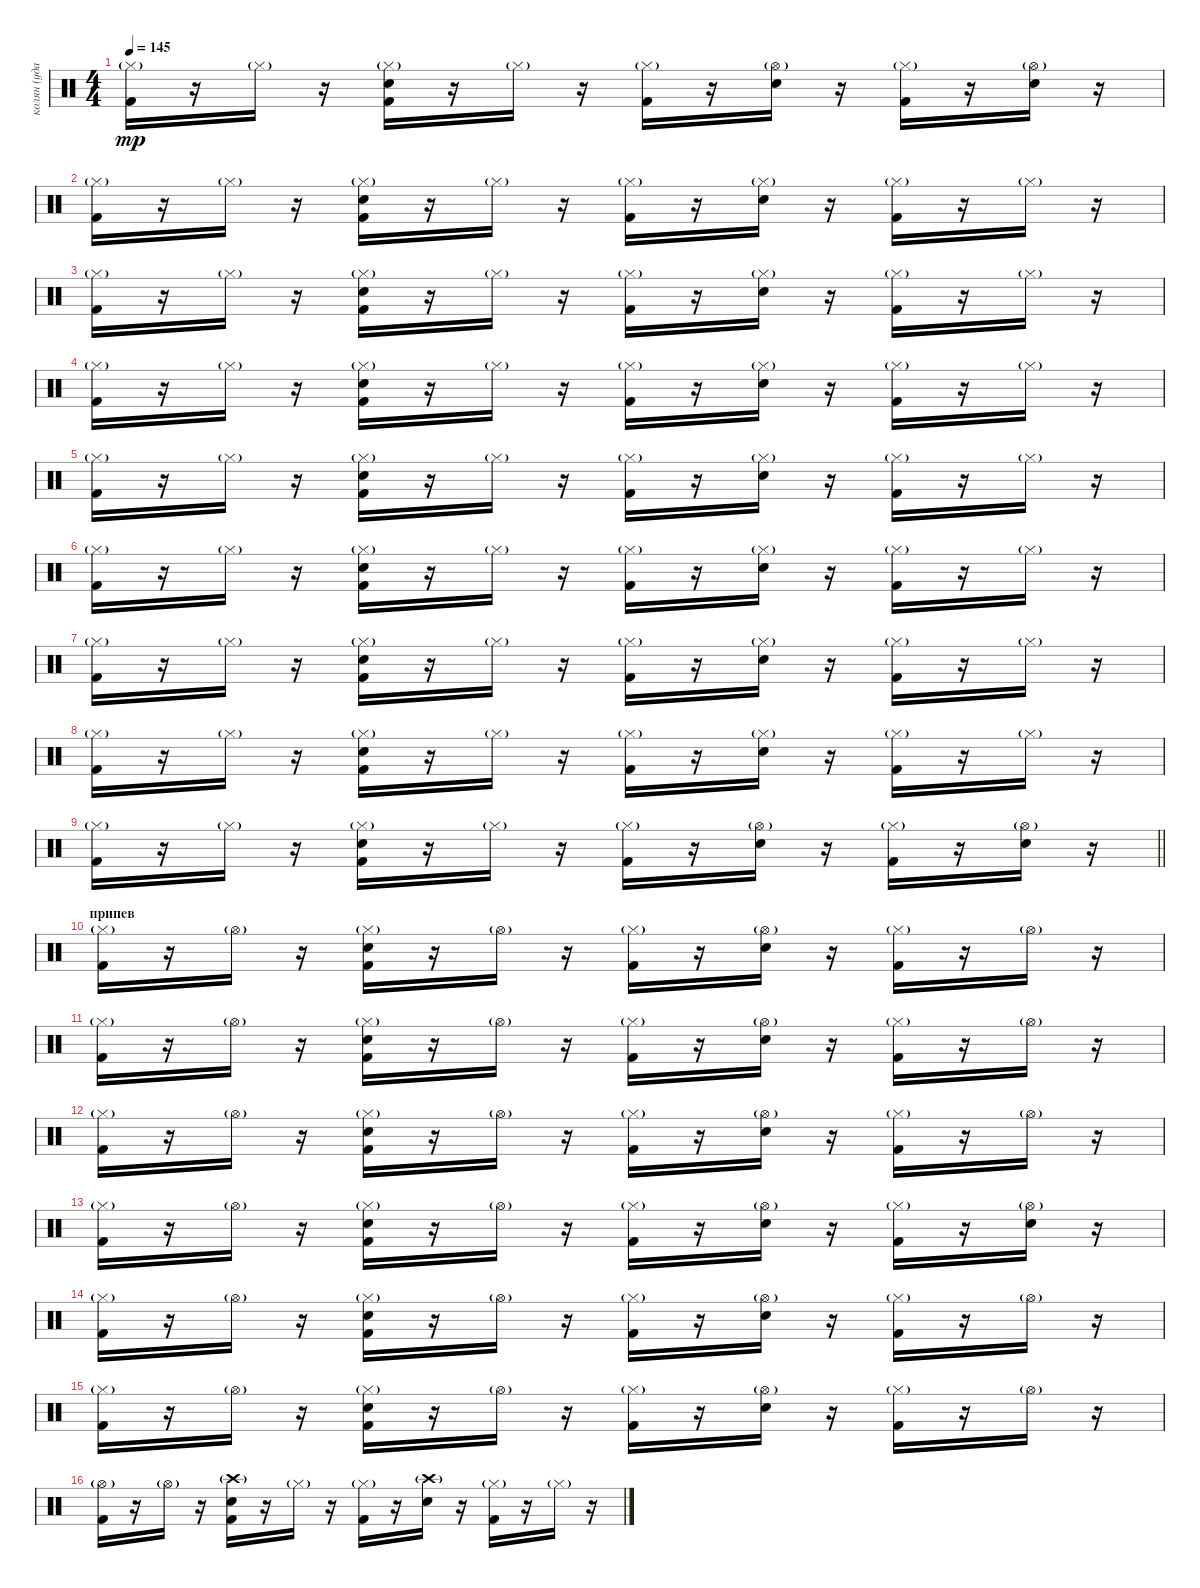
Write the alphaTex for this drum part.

\track ("колян (ударные)" "колян (уда") {instrument percussion}
\staff {score}
\articulation defaults
\ts (4 4)
\tempo 145
\clef neutral
\ks c
("Kick (hit) 2" "Hi-Hat (closed)"{g}).16{dy mp} r.16 "Hi-Hat (closed)"{g}.16 r.16 ("Snare (hit) 2" "Kick (hit) 2" "Hi-Hat (closed)"{g}).16 r.16 "Hi-Hat (closed)"{g}.16 r.16 ("Kick (hit) 2" "Hi-Hat (closed)"{g}).16 r.16 ("Snare (hit) 2" "Hi-Hat (open)"{g}).16 r.16 ("Kick (hit) 2" "Hi-Hat (closed)"{g}).16 r.16 ("Snare (hit) 2" "Hi-Hat (open)"{g}).16 r.16 |
("Kick (hit) 2" "Hi-Hat (closed)"{g}).16 r.16 "Hi-Hat (closed)"{g}.16 r.16 ("Snare (hit) 2" "Kick (hit) 2" "Hi-Hat (closed)"{g}).16 r.16 "Hi-Hat (closed)"{g}.16 r.16 ("Kick (hit) 2" "Hi-Hat (closed)"{g}).16 r.16 ("Snare (hit) 2" "Hi-Hat (closed)"{g}).16 r.16 ("Kick (hit) 2" "Hi-Hat (closed)"{g}).16 r.16 "Hi-Hat (closed)"{g}.16 r.16 |
("Kick (hit) 2" "Hi-Hat (closed)"{g}).16 r.16 "Hi-Hat (closed)"{g}.16 r.16 ("Snare (hit) 2" "Kick (hit) 2" "Hi-Hat (closed)"{g}).16 r.16 "Hi-Hat (closed)"{g}.16 r.16 ("Kick (hit) 2" "Hi-Hat (closed)"{g}).16 r.16 ("Snare (hit) 2" "Hi-Hat (closed)"{g}).16 r.16 ("Kick (hit) 2" "Hi-Hat (closed)"{g}).16 r.16 "Hi-Hat (closed)"{g}.16 r.16 |
("Kick (hit) 2" "Hi-Hat (closed)"{g}).16 r.16 "Hi-Hat (closed)"{g}.16 r.16 ("Snare (hit) 2" "Kick (hit) 2" "Hi-Hat (closed)"{g}).16 r.16 "Hi-Hat (closed)"{g}.16 r.16 ("Kick (hit) 2" "Hi-Hat (closed)"{g}).16 r.16 ("Snare (hit) 2" "Hi-Hat (closed)"{g}).16 r.16 ("Kick (hit) 2" "Hi-Hat (closed)"{g}).16 r.16 "Hi-Hat (closed)"{g}.16 r.16 |
("Kick (hit) 2" "Hi-Hat (closed)"{g}).16 r.16 "Hi-Hat (closed)"{g}.16 r.16 ("Snare (hit) 2" "Kick (hit) 2" "Hi-Hat (closed)"{g}).16 r.16 "Hi-Hat (closed)"{g}.16 r.16 ("Kick (hit) 2" "Hi-Hat (closed)"{g}).16 r.16 ("Snare (hit) 2" "Hi-Hat (closed)"{g}).16 r.16 ("Kick (hit) 2" "Hi-Hat (closed)"{g}).16 r.16 "Hi-Hat (closed)"{g}.16 r.16 |
("Kick (hit) 2" "Hi-Hat (closed)"{g}).16 r.16 "Hi-Hat (closed)"{g}.16 r.16 ("Snare (hit) 2" "Kick (hit) 2" "Hi-Hat (closed)"{g}).16 r.16 "Hi-Hat (closed)"{g}.16 r.16 ("Kick (hit) 2" "Hi-Hat (closed)"{g}).16 r.16 ("Snare (hit) 2" "Hi-Hat (closed)"{g}).16 r.16 ("Kick (hit) 2" "Hi-Hat (closed)"{g}).16 r.16 "Hi-Hat (closed)"{g}.16 r.16 |
("Kick (hit) 2" "Hi-Hat (closed)"{g}).16 r.16 "Hi-Hat (closed)"{g}.16 r.16 ("Snare (hit) 2" "Kick (hit) 2" "Hi-Hat (closed)"{g}).16 r.16 "Hi-Hat (closed)"{g}.16 r.16 ("Kick (hit) 2" "Hi-Hat (closed)"{g}).16 r.16 ("Snare (hit) 2" "Hi-Hat (closed)"{g}).16 r.16 ("Kick (hit) 2" "Hi-Hat (closed)"{g}).16 r.16 "Hi-Hat (closed)"{g}.16 r.16 |
("Kick (hit) 2" "Hi-Hat (closed)"{g}).16 r.16 "Hi-Hat (closed)"{g}.16 r.16 ("Snare (hit) 2" "Kick (hit) 2" "Hi-Hat (closed)"{g}).16 r.16 "Hi-Hat (closed)"{g}.16 r.16 ("Kick (hit) 2" "Hi-Hat (closed)"{g}).16 r.16 ("Snare (hit) 2" "Hi-Hat (closed)"{g}).16 r.16 ("Kick (hit) 2" "Hi-Hat (closed)"{g}).16 r.16 "Hi-Hat (closed)"{g}.16 r.16 |
\barLineRight lightlight
("Kick (hit) 2" "Hi-Hat (closed)"{g}).16 r.16 "Hi-Hat (closed)"{g}.16 r.16 ("Snare (hit) 2" "Kick (hit) 2" "Hi-Hat (closed)"{g}).16 r.16 "Hi-Hat (closed)"{g}.16 r.16 ("Kick (hit) 2" "Hi-Hat (closed)"{g}).16 r.16 ("Snare (hit) 2" "Hi-Hat (open)"{g}).16 r.16 ("Kick (hit) 2" "Hi-Hat (closed)"{g}).16 r.16 ("Snare (hit) 2" "Hi-Hat (open)"{g}).16 r.16 |
\section ("" "припев")
("Kick (hit) 2" "Hi-Hat (closed)"{g}).16 r.16 "Hi-Hat (open)"{g}.16 r.16 ("Snare (hit) 2" "Kick (hit) 2" "Hi-Hat (closed)"{g}).16 r.16 "Hi-Hat (open)"{g}.16 r.16 ("Kick (hit) 2" "Hi-Hat (closed)"{g}).16 r.16 ("Snare (hit) 2" "Hi-Hat (open)"{g}).16 r.16 ("Kick (hit) 2" "Hi-Hat (closed)"{g}).16 r.16 "Hi-Hat (open)"{g}.16 r.16 |
("Kick (hit) 2" "Hi-Hat (closed)"{g}).16 r.16 "Hi-Hat (open)"{g}.16 r.16 ("Snare (hit) 2" "Kick (hit) 2" "Hi-Hat (closed)"{g}).16 r.16 "Hi-Hat (open)"{g}.16 r.16 ("Kick (hit) 2" "Hi-Hat (closed)"{g}).16 r.16 ("Snare (hit) 2" "Hi-Hat (open)"{g}).16 r.16 ("Kick (hit) 2" "Hi-Hat (closed)"{g}).16 r.16 "Hi-Hat (open)"{g}.16 r.16 |
("Kick (hit) 2" "Hi-Hat (closed)"{g}).16 r.16 "Hi-Hat (open)"{g}.16 r.16 ("Snare (hit) 2" "Kick (hit) 2" "Hi-Hat (closed)"{g}).16 r.16 "Hi-Hat (open)"{g}.16 r.16 ("Kick (hit) 2" "Hi-Hat (closed)"{g}).16 r.16 ("Snare (hit) 2" "Hi-Hat (open)"{g}).16 r.16 ("Kick (hit) 2" "Hi-Hat (closed)"{g}).16 r.16 "Hi-Hat (open)"{g}.16 r.16 |
("Kick (hit) 2" "Hi-Hat (closed)"{g}).16 r.16 "Hi-Hat (open)"{g}.16 r.16 ("Snare (hit) 2" "Kick (hit) 2" "Hi-Hat (closed)"{g}).16 r.16 "Hi-Hat (open)"{g}.16 r.16 ("Kick (hit) 2" "Hi-Hat (closed)"{g}).16 r.16 ("Snare (hit) 2" "Hi-Hat (open)"{g}).16 r.16 ("Kick (hit) 2" "Hi-Hat (closed)"{g}).16 r.16 ("Snare (hit) 2" "Hi-Hat (open)"{g}).16 r.16 |
("Kick (hit) 2" "Hi-Hat (closed)"{g}).16 r.16 "Hi-Hat (open)"{g}.16 r.16 ("Snare (hit) 2" "Kick (hit) 2" "Hi-Hat (closed)"{g}).16 r.16 "Hi-Hat (open)"{g}.16 r.16 ("Kick (hit) 2" "Hi-Hat (closed)"{g}).16 r.16 ("Snare (hit) 2" "Hi-Hat (open)"{g}).16 r.16 ("Kick (hit) 2" "Hi-Hat (closed)"{g}).16 r.16 "Hi-Hat (open)"{g}.16 r.16 |
("Kick (hit) 2" "Hi-Hat (closed)"{g}).16 r.16 "Hi-Hat (open)"{g}.16 r.16 ("Snare (hit) 2" "Kick (hit) 2" "Hi-Hat (closed)"{g}).16 r.16 "Hi-Hat (open)"{g}.16 r.16 ("Kick (hit) 2" "Hi-Hat (closed)"{g}).16 r.16 ("Snare (hit) 2" "Hi-Hat (open)"{g}).16 r.16 ("Kick (hit) 2" "Hi-Hat (closed)"{g}).16 r.16 "Hi-Hat (open)"{g}.16 r.16 |
("Kick (hit) 2" "Hi-Hat (open)"{g}).16 r.16 "Hi-Hat (open)"{g}.16 r.16 ("Snare (hit) 2" "Kick (hit) 2" "Crash high (hit)"{g}).16 r.16 "Hi-Hat (closed)"{g}.16 r.16 ("Kick (hit) 2" "Hi-Hat (closed)"{g}).16 r.16 ("Snare (hit) 2" "Crash high (hit)"{g}).16 r.16 ("Kick (hit) 2" "Hi-Hat (closed)"{g}).16 r.16 "Hi-Hat (closed)"{g}.16 r.16
